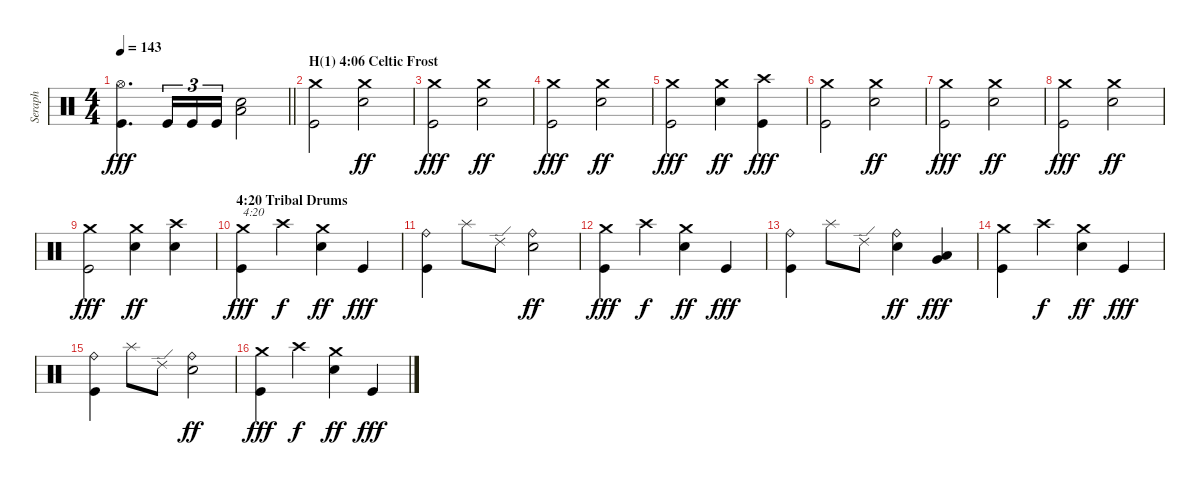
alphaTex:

\track ("Seraph" "Seraph") {instrument percussion}
\staff {score}
\articulation defaults
\ts (4 4)
\tempo 143
\clef neutral
\barLineRight lightlight
\ks c
("Hi-Hat (open)" "Kick (hit)").4{d dy fff} "Kick (hit)".16{tu (3 2)} "Kick (hit)".16{tu (3 2)} "Kick (hit)".16{tu (3 2)} ("Electric Snare (hit)" "Low Floor Tom (hit)").2 |
\section ("" "H(1) 4:06 Celtic Frost")
("Crash medium (hit)" "Kick (hit)").2 ("Crash medium (hit)" "Electric Snare (hit)").2{dy ff} |
("Crash medium (hit)" "Kick (hit)").2{dy fff} ("Crash medium (hit)" "Electric Snare (hit)").2{dy ff} |
("Crash medium (hit)" "Kick (hit)").2{dy fff} ("Crash medium (hit)" "Electric Snare (hit)").2{dy ff} |
("Crash medium (hit)" "Kick (hit)").2{dy fff} ("Crash medium (hit)" "Electric Snare (hit)").4{dy ff} ("Crash high (hit)" "Kick (hit)").4{dy fff} |
("Crash medium (hit)" "Kick (hit)").2 ("Crash medium (hit)" "Electric Snare (hit)").2{dy ff} |
("Crash medium (hit)" "Kick (hit)").2{dy fff} ("Crash medium (hit)" "Electric Snare (hit)").2{dy ff} |
("Crash medium (hit)" "Kick (hit)").2{dy fff} ("Crash medium (hit)" "Electric Snare (hit)").2{dy ff} |
("Crash medium (hit)" "Kick (hit)").2{dy fff} ("Crash medium (hit)" "Electric Snare (hit)").4{dy ff} ("Crash high (hit)" "Electric Snare (hit)").4 |
\section ("" "4:20 Tribal Drums")
("Crash medium (hit)" "Kick (hit)").4{txt "4:20" dy fff} "Crash high (hit)".4{dy f} ("Crash medium (hit)" "Electric Snare (hit)").4{dy ff} "Kick (hit)".4{dy fff} |
("Ride (bell)" "Kick (hit)").4 "Splash (hit)".8 "Ride (edge) 2".8 ("Ride (bell)" "Electric Snare (hit)").2{dy ff} |
("Crash medium (hit)" "Kick (hit)").4{dy fff} "Crash high (hit)".4{dy f} ("Crash medium (hit)" "Electric Snare (hit)").4{dy ff} "Kick (hit)".4{dy fff} |
("Ride (bell)" "Kick (hit)").4 "Splash (hit)".8 "Ride (edge) 2".8 ("Ride (bell)" "Electric Snare (hit)").4{dy ff} ("Very Low Tom (hit)" "Low Floor Tom (hit)").4{dy fff} |
("Crash medium (hit)" "Kick (hit)").4 "Crash high (hit)".4{dy f} ("Crash medium (hit)" "Electric Snare (hit)").4{dy ff} "Kick (hit)".4{dy fff} |
("Ride (bell)" "Kick (hit)").4 "Splash (hit)".8 "Ride (edge) 2".8 ("Ride (bell)" "Electric Snare (hit)").2{dy ff} |
("Crash medium (hit)" "Kick (hit)").4{dy fff} "Crash high (hit)".4{dy f} ("Crash medium (hit)" "Electric Snare (hit)").4{dy ff} "Kick (hit)".4{dy fff}
